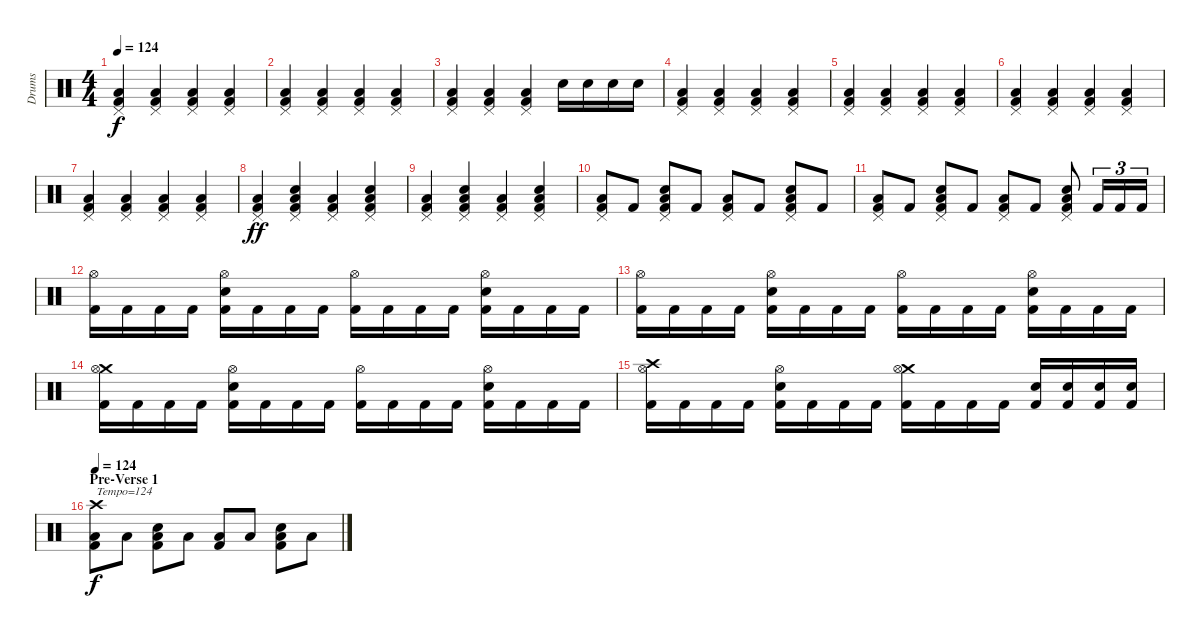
\track ("Drums" "Drums") {instrument percussion}
\staff {score}
\articulation defaults
\ts (4 4)
\tempo 124
\clef neutral
\ks c
("Pedal Hi-Hat (hit)" "Low Floor Tom (hit)" "Kick (hit) 2").4{dy f} ("Pedal Hi-Hat (hit)" "Low Floor Tom (hit)" "Kick (hit) 2").4 ("Pedal Hi-Hat (hit)" "Low Floor Tom (hit)" "Kick (hit) 2").4 ("Pedal Hi-Hat (hit)" "Low Floor Tom (hit)" "Kick (hit) 2").4 |
("Pedal Hi-Hat (hit)" "Low Floor Tom (hit)" "Kick (hit) 2").4 ("Pedal Hi-Hat (hit)" "Low Floor Tom (hit)" "Kick (hit) 2").4 ("Pedal Hi-Hat (hit)" "Low Floor Tom (hit)" "Kick (hit) 2").4 ("Pedal Hi-Hat (hit)" "Low Floor Tom (hit)" "Kick (hit) 2").4 |
("Pedal Hi-Hat (hit)" "Low Floor Tom (hit)" "Kick (hit) 2").4 ("Pedal Hi-Hat (hit)" "Low Floor Tom (hit)" "Kick (hit) 2").4 ("Pedal Hi-Hat (hit)" "Low Floor Tom (hit)" "Kick (hit) 2").4 "Electric Snare (hit)".16 "Electric Snare (hit)".16 "Electric Snare (hit)".16 "Electric Snare (hit)".16 |
("Pedal Hi-Hat (hit)" "Low Floor Tom (hit)" "Kick (hit) 2").4 ("Pedal Hi-Hat (hit)" "Low Floor Tom (hit)" "Kick (hit) 2").4 ("Pedal Hi-Hat (hit)" "Low Floor Tom (hit)" "Kick (hit) 2").4 ("Pedal Hi-Hat (hit)" "Low Floor Tom (hit)" "Kick (hit) 2").4 |
("Pedal Hi-Hat (hit)" "Low Floor Tom (hit)" "Kick (hit) 2").4 ("Pedal Hi-Hat (hit)" "Low Floor Tom (hit)" "Kick (hit) 2").4 ("Pedal Hi-Hat (hit)" "Low Floor Tom (hit)" "Kick (hit) 2").4 ("Pedal Hi-Hat (hit)" "Low Floor Tom (hit)" "Kick (hit) 2").4 |
("Pedal Hi-Hat (hit)" "Low Floor Tom (hit)" "Kick (hit) 2").4 ("Pedal Hi-Hat (hit)" "Low Floor Tom (hit)" "Kick (hit) 2").4 ("Pedal Hi-Hat (hit)" "Low Floor Tom (hit)" "Kick (hit) 2").4 ("Pedal Hi-Hat (hit)" "Low Floor Tom (hit)" "Kick (hit) 2").4 |
("Pedal Hi-Hat (hit)" "Low Floor Tom (hit)" "Kick (hit) 2").4 ("Pedal Hi-Hat (hit)" "Low Floor Tom (hit)" "Kick (hit) 2").4 ("Pedal Hi-Hat (hit)" "Low Floor Tom (hit)" "Kick (hit) 2").4 ("Pedal Hi-Hat (hit)" "Low Floor Tom (hit)" "Kick (hit) 2").4 |
("Pedal Hi-Hat (hit)" "Low Floor Tom (hit)" "Kick (hit) 2").4{dy ff} ("Pedal Hi-Hat (hit)" "Low Floor Tom (hit)" "Electric Snare (hit)" "Kick (hit) 2").4 ("Pedal Hi-Hat (hit)" "Low Floor Tom (hit)" "Kick (hit) 2").4 ("Pedal Hi-Hat (hit)" "Low Floor Tom (hit)" "Electric Snare (hit)" "Kick (hit) 2").4 |
("Pedal Hi-Hat (hit)" "Low Floor Tom (hit)" "Kick (hit) 2").4 ("Pedal Hi-Hat (hit)" "Low Floor Tom (hit)" "Electric Snare (hit)" "Kick (hit) 2").4 ("Pedal Hi-Hat (hit)" "Low Floor Tom (hit)" "Kick (hit) 2").4 ("Pedal Hi-Hat (hit)" "Low Floor Tom (hit)" "Electric Snare (hit)" "Kick (hit) 2").4 |
("Pedal Hi-Hat (hit)" "Low Floor Tom (hit)" "Kick (hit) 2").8 "Kick (hit) 2".8 ("Pedal Hi-Hat (hit)" "Low Floor Tom (hit)" "Electric Snare (hit)" "Kick (hit) 2").8 "Kick (hit) 2".8 ("Pedal Hi-Hat (hit)" "Low Floor Tom (hit)" "Kick (hit) 2").8 "Kick (hit) 2".8 ("Pedal Hi-Hat (hit)" "Low Floor Tom (hit)" "Electric Snare (hit)" "Kick (hit) 2").8 "Kick (hit) 2".8 |
("Pedal Hi-Hat (hit)" "Low Floor Tom (hit)" "Kick (hit) 2").8 "Kick (hit) 2".8 ("Pedal Hi-Hat (hit)" "Low Floor Tom (hit)" "Electric Snare (hit)" "Kick (hit) 2").8 "Kick (hit) 2".8 ("Pedal Hi-Hat (hit)" "Low Floor Tom (hit)" "Kick (hit) 2").8 "Kick (hit) 2".8 ("Pedal Hi-Hat (hit)" "Low Floor Tom (hit)" "Electric Snare (hit)" "Kick (hit) 2").8 "Kick (hit) 2".16{tu (3 2)} "Kick (hit) 2".16{tu (3 2)} "Kick (hit) 2".16{tu (3 2)} |
("Hi-Hat (open)" "Kick (hit) 2").16 "Kick (hit) 2".16 "Kick (hit) 2".16 "Kick (hit) 2".16 ("Hi-Hat (open)" "Electric Snare (hit)" "Kick (hit) 2").16 "Kick (hit) 2".16 "Kick (hit) 2".16 "Kick (hit) 2".16 ("Hi-Hat (open)" "Kick (hit) 2").16 "Kick (hit) 2".16 "Kick (hit) 2".16 "Kick (hit) 2".16 ("Hi-Hat (open)" "Electric Snare (hit)" "Kick (hit) 2").16 "Kick (hit) 2".16 "Kick (hit) 2".16 "Kick (hit) 2".16 |
("Hi-Hat (open)" "Kick (hit) 2").16 "Kick (hit) 2".16 "Kick (hit) 2".16 "Kick (hit) 2".16 ("Hi-Hat (open)" "Electric Snare (hit)" "Kick (hit) 2").16 "Kick (hit) 2".16 "Kick (hit) 2".16 "Kick (hit) 2".16 ("Hi-Hat (open)" "Kick (hit) 2").16 "Kick (hit) 2".16 "Kick (hit) 2".16 "Kick (hit) 2".16 ("Hi-Hat (open)" "Electric Snare (hit)" "Kick (hit) 2").16 "Kick (hit) 2".16 "Kick (hit) 2".16 "Kick (hit) 2".16 |
("Crash medium (hit)" "Hi-Hat (open)" "Kick (hit) 2").16 "Kick (hit) 2".16 "Kick (hit) 2".16 "Kick (hit) 2".16 ("Hi-Hat (open)" "Electric Snare (hit)" "Kick (hit) 2").16 "Kick (hit) 2".16 "Kick (hit) 2".16 "Kick (hit) 2".16 ("Hi-Hat (open)" "Kick (hit) 2").16 "Kick (hit) 2".16 "Kick (hit) 2".16 "Kick (hit) 2".16 ("Hi-Hat (open)" "Electric Snare (hit)" "Kick (hit) 2").16 "Kick (hit) 2".16 "Kick (hit) 2".16 "Kick (hit) 2".16 |
("Crash high (hit)" "Hi-Hat (open)" "Kick (hit) 2").16 "Kick (hit) 2".16 "Kick (hit) 2".16 "Kick (hit) 2".16 ("Hi-Hat (open)" "Electric Snare (hit)" "Kick (hit) 2").16 "Kick (hit) 2".16 "Kick (hit) 2".16 "Kick (hit) 2".16 ("Crash medium (hit)" "Hi-Hat (open)" "Kick (hit) 2").16 "Kick (hit) 2".16 "Kick (hit) 2".16 "Kick (hit) 2".16 ("Electric Snare (hit)" "Kick (hit) 2").16 ("Electric Snare (hit)" "Kick (hit) 2").16 ("Electric Snare (hit)" "Kick (hit) 2").16 ("Electric Snare (hit)" "Kick (hit) 2").16 |
\section ("" "Pre-Verse 1")
\tempo 124
("Crash high (hit)" "Low Floor Tom (hit)" "Kick (hit) 2").8{txt "Tempo=124" dy f} "Low Floor Tom (hit)".8 ("Low Floor Tom (hit)" "Electric Snare (hit)" "Kick (hit) 2").8 "Low Floor Tom (hit)".8 ("Low Floor Tom (hit)" "Kick (hit) 2").8 "Low Floor Tom (hit)".8 ("Low Floor Tom (hit)" "Electric Snare (hit)" "Kick (hit) 2").8 "Low Floor Tom (hit)".8
